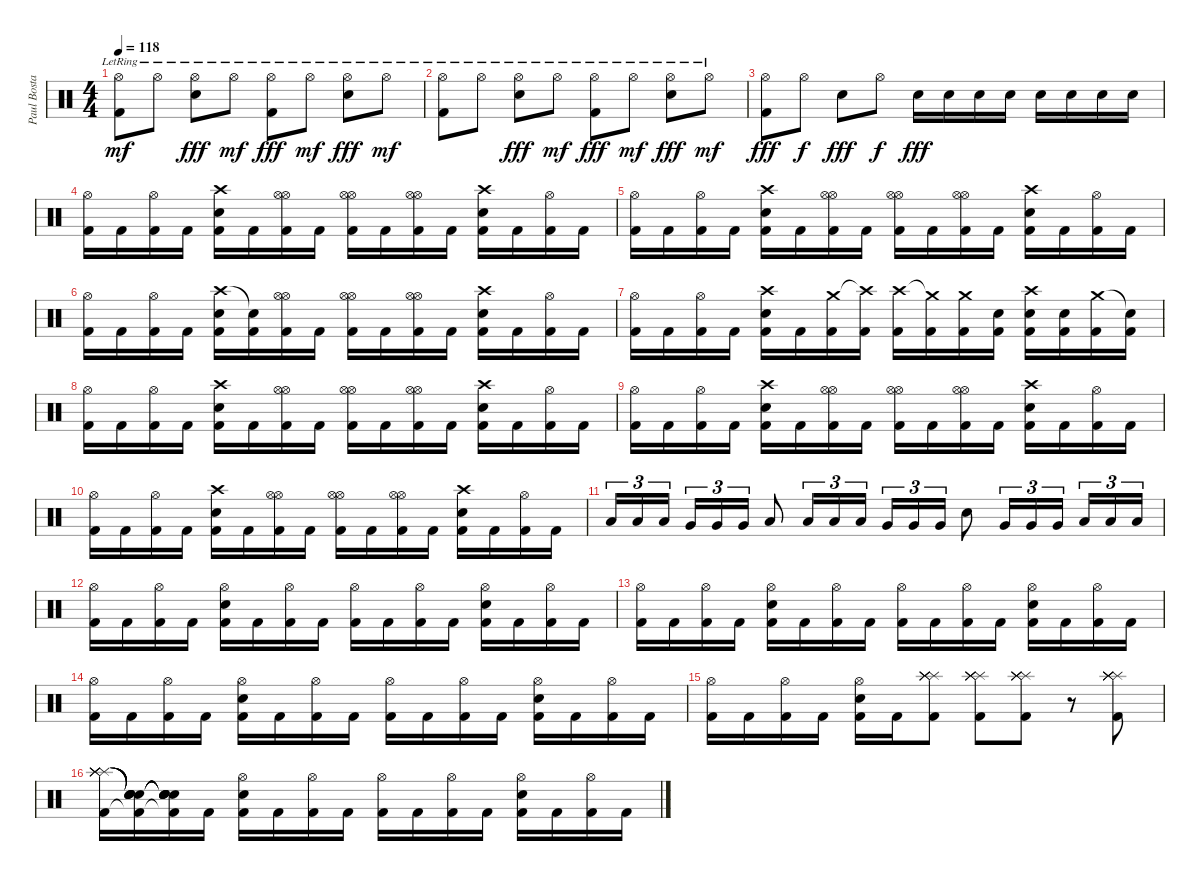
\track ("Paul Bostaph" "Paul Bosta") {instrument percussion}
\staff {score}
\articulation defaults
\ts (4 4)
\tempo 118
\clef neutral
\ks c
("Kick (hit) 2" "Hi-Hat (open)"{lr}).8{dy mf} "Hi-Hat (open)"{lr}.8 ("Hi-Hat (open)"{lr} "Snare (hit) 2").8{dy fff} "Hi-Hat (open)"{lr}.8{dy mf} ("Hi-Hat (open)"{lr} "Kick (hit) 2").8{dy fff} "Hi-Hat (open)"{lr}.8{dy mf} ("Hi-Hat (open)"{lr} "Snare (hit) 2").8{dy fff} "Hi-Hat (open)"{lr}.8{dy mf} |
("Kick (hit) 2" "Hi-Hat (open)"{lr}).8 "Hi-Hat (open)"{lr}.8 ("Hi-Hat (open)"{lr} "Snare (hit) 2").8{dy fff} "Hi-Hat (open)"{lr}.8{dy mf} ("Hi-Hat (open)"{lr} "Kick (hit) 2").8{dy fff} "Hi-Hat (open)"{lr}.8{dy mf} ("Hi-Hat (open)"{lr} "Snare (hit) 2").8{dy fff} "Hi-Hat (open)"{lr}.8{dy mf} |
("Hi-Hat (open)" "Kick (hit) 2").8{dy fff} "Hi-Hat (open)".8{dy f} "Snare (hit) 2".8{dy fff} "Hi-Hat (open)".8{dy f} "Snare (hit) 2".16{dy fff} "Snare (hit) 2".16 "Snare (hit) 2".16 "Snare (hit) 2".16 "Snare (hit) 2".16 "Snare (hit) 2".16 "Snare (hit) 2".16 "Snare (hit) 2".16 |
("Hi-Hat (open)" "Kick (hit) 2").16 "Kick (hit) 2".16 ("Hi-Hat (open)" "Kick (hit) 2").16 "Kick (hit) 2".16 ("Crash high (hit)" "Snare (hit) 2" "Kick (hit) 2").16 "Kick (hit) 2".16 ("Hi-Hat (open)" "Hi-Hat (open)" "Kick (hit) 2").16 "Kick (hit) 2".16 ("Hi-Hat (open)" "Hi-Hat (open)" "Kick (hit) 2").16 "Kick (hit) 2".16 ("Hi-Hat (open)" "Hi-Hat (open)" "Kick (hit) 2").16 "Kick (hit) 2".16 ("Crash high (hit)" "Snare (hit) 2" "Kick (hit) 2").16 "Kick (hit) 2".16 ("Hi-Hat (open)" "Kick (hit) 2").16 "Kick (hit) 2".16 |
("Hi-Hat (open)" "Kick (hit) 2").16 "Kick (hit) 2".16 ("Hi-Hat (open)" "Kick (hit) 2").16 "Kick (hit) 2".16 ("Crash high (hit)" "Snare (hit) 2" "Kick (hit) 2").16 "Kick (hit) 2".16 ("Hi-Hat (open)" "Hi-Hat (open)" "Kick (hit) 2").16 "Kick (hit) 2".16 ("Hi-Hat (open)" "Hi-Hat (open)" "Kick (hit) 2").16 "Kick (hit) 2".16 ("Hi-Hat (open)" "Hi-Hat (open)" "Kick (hit) 2").16 "Kick (hit) 2".16 ("Crash high (hit)" "Snare (hit) 2" "Kick (hit) 2").16 "Kick (hit) 2".16 ("Hi-Hat (open)" "Kick (hit) 2").16 "Kick (hit) 2".16 |
("Hi-Hat (open)" "Kick (hit) 2").16 "Kick (hit) 2".16 ("Hi-Hat (open)" "Kick (hit) 2").16 "Kick (hit) 2".16 ("Crash high (hit)" "Snare (hit) 2" "Kick (hit) 2").16 ("Snare (hit)"{t} "Kick (hit) 2").16 ("Hi-Hat (open)" "Hi-Hat (open)" "Kick (hit) 2").16 "Kick (hit) 2".16 ("Hi-Hat (open)" "Hi-Hat (open)" "Kick (hit) 2").16 "Kick (hit) 2".16 ("Hi-Hat (open)" "Hi-Hat (open)" "Kick (hit) 2").16 "Kick (hit) 2".16 ("Crash high (hit)" "Snare (hit) 2" "Kick (hit) 2").16 "Kick (hit) 2".16 ("Hi-Hat (open)" "Kick (hit) 2").16 "Kick (hit) 2".16 |
("Hi-Hat (open)" "Kick (hit) 2").16 "Kick (hit) 2".16 ("Hi-Hat (open)" "Kick (hit) 2").16 "Kick (hit) 2".16 ("Crash high (hit)" "Snare (hit) 2" "Kick (hit) 2").16 "Kick (hit) 2".16 ("Crash medium (hit)" "Kick (hit) 2").16 ("Crash high (hit)"{t} "Kick (hit) 2").16 ("Crash high (hit)" "Kick (hit) 2").16 ("Crash medium (hit)"{t} "Kick (hit) 2").16 ("Crash medium (hit)" "Kick (hit) 2").16 ("Snare (hit) 2" "Kick (hit) 2").16 ("Crash high (hit)" "Snare (hit) 2" "Kick (hit) 2").16 ("Snare (hit) 2" "Kick (hit) 2").16 ("Crash medium (hit)" "Kick (hit) 2").16 ("Snare (hit)"{t} "Kick (hit) 2").16 |
("Hi-Hat (open)" "Kick (hit) 2").16 "Kick (hit) 2".16 ("Hi-Hat (open)" "Kick (hit) 2").16 "Kick (hit) 2".16 ("Crash high (hit)" "Snare (hit) 2" "Kick (hit) 2").16 "Kick (hit) 2".16 ("Hi-Hat (open)" "Hi-Hat (open)" "Kick (hit) 2").16 "Kick (hit) 2".16 ("Hi-Hat (open)" "Hi-Hat (open)" "Kick (hit) 2").16 "Kick (hit) 2".16 ("Hi-Hat (open)" "Hi-Hat (open)" "Kick (hit) 2").16 "Kick (hit) 2".16 ("Crash high (hit)" "Snare (hit) 2" "Kick (hit) 2").16 "Kick (hit) 2".16 ("Hi-Hat (open)" "Kick (hit) 2").16 "Kick (hit) 2".16 |
("Hi-Hat (open)" "Kick (hit) 2").16 "Kick (hit) 2".16 ("Hi-Hat (open)" "Kick (hit) 2").16 "Kick (hit) 2".16 ("Crash high (hit)" "Snare (hit) 2" "Kick (hit) 2").16 "Kick (hit) 2".16 ("Hi-Hat (open)" "Hi-Hat (open)" "Kick (hit) 2").16 "Kick (hit) 2".16 ("Hi-Hat (open)" "Hi-Hat (open)" "Kick (hit) 2").16 "Kick (hit) 2".16 ("Hi-Hat (open)" "Hi-Hat (open)" "Kick (hit) 2").16 "Kick (hit) 2".16 ("Crash high (hit)" "Snare (hit) 2" "Kick (hit) 2").16 "Kick (hit) 2".16 ("Hi-Hat (open)" "Kick (hit) 2").16 "Kick (hit) 2".16 |
("Hi-Hat (open)" "Kick (hit) 2").16 "Kick (hit) 2".16 ("Hi-Hat (open)" "Kick (hit) 2").16 "Kick (hit) 2".16 ("Crash high (hit)" "Snare (hit) 2" "Kick (hit) 2").16 "Kick (hit) 2".16 ("Hi-Hat (open)" "Hi-Hat (open)" "Kick (hit) 2").16 "Kick (hit) 2".16 ("Hi-Hat (open)" "Hi-Hat (open)" "Kick (hit) 2").16 "Kick (hit) 2".16 ("Hi-Hat (open)" "Hi-Hat (open)" "Kick (hit) 2").16 "Kick (hit) 2".16 ("Crash high (hit)" "Snare (hit) 2" "Kick (hit) 2").16 "Kick (hit) 2".16 ("Hi-Hat (open)" "Kick (hit) 2").16 "Kick (hit) 2".16 |
"Low Floor Tom (hit)".16{tu (3 2)} "Low Floor Tom (hit)".16{tu (3 2)} "Low Floor Tom (hit)".16{tu (3 2)} "Very Low Tom (hit)".16{tu (3 2)} "Very Low Tom (hit)".16{tu (3 2)} "Very Low Tom (hit)".16{tu (3 2)} "Low Tom (hit)".8 "Low Floor Tom (hit)".16{tu (3 2)} "Low Floor Tom (hit)".16{tu (3 2)} "Low Floor Tom (hit)".16{tu (3 2)} "Very Low Tom (hit)".16{tu (3 2)} "Very Low Tom (hit)".16{tu (3 2)} "Very Low Tom (hit)".16{tu (3 2)} "Snare (hit) 2".8 "Very Low Tom (hit)".16{tu (3 2)} "Very Low Tom (hit)".16{tu (3 2)} "Very Low Tom (hit)".16{tu (3 2)} "Low Floor Tom (hit)".16{tu (3 2)} "Low Floor Tom (hit)".16{tu (3 2)} "Low Floor Tom (hit)".16{tu (3 2)} |
("Hi-Hat (open)" "Kick (hit) 2").16 "Kick (hit) 2".16 ("Hi-Hat (open)" "Kick (hit) 2").16 "Kick (hit) 2".16 ("Hi-Hat (open)" "Snare (hit) 2" "Kick (hit) 2").16 "Kick (hit) 2".16 ("Hi-Hat (open)" "Kick (hit) 2").16 "Kick (hit) 2".16 ("Hi-Hat (open)" "Kick (hit) 2").16 "Kick (hit) 2".16 ("Hi-Hat (open)" "Kick (hit) 2").16 "Kick (hit) 2".16 ("Hi-Hat (open)" "Snare (hit) 2" "Kick (hit) 2").16 "Kick (hit) 2".16 ("Hi-Hat (open)" "Kick (hit) 2").16 "Kick (hit) 2".16 |
("Hi-Hat (open)" "Kick (hit) 2").16 "Kick (hit) 2".16 ("Hi-Hat (open)" "Kick (hit) 2").16 "Kick (hit) 2".16 ("Hi-Hat (open)" "Snare (hit) 2" "Kick (hit) 2").16 "Kick (hit) 2".16 ("Hi-Hat (open)" "Kick (hit) 2").16 "Kick (hit) 2".16 ("Hi-Hat (open)" "Kick (hit) 2").16 "Kick (hit) 2".16 ("Hi-Hat (open)" "Kick (hit) 2").16 "Kick (hit) 2".16 ("Hi-Hat (open)" "Snare (hit) 2" "Kick (hit) 2").16 "Kick (hit) 2".16 ("Hi-Hat (open)" "Kick (hit) 2").16 "Kick (hit) 2".16 |
("Hi-Hat (open)" "Kick (hit) 2").16 "Kick (hit) 2".16 ("Hi-Hat (open)" "Kick (hit) 2").16 "Kick (hit) 2".16 ("Hi-Hat (open)" "Snare (hit) 2" "Kick (hit) 2").16 "Kick (hit) 2".16 ("Hi-Hat (open)" "Kick (hit) 2").16 "Kick (hit) 2".16 ("Hi-Hat (open)" "Kick (hit) 2").16 "Kick (hit) 2".16 ("Hi-Hat (open)" "Kick (hit) 2").16 "Kick (hit) 2".16 ("Hi-Hat (open)" "Snare (hit) 2" "Kick (hit) 2").16 "Kick (hit) 2".16 ("Hi-Hat (open)" "Kick (hit) 2").16 "Kick (hit) 2".16 |
("Hi-Hat (open)" "Kick (hit) 2").16 "Kick (hit) 2".16 ("Hi-Hat (open)" "Kick (hit) 2").16 "Kick (hit) 2".16 ("Hi-Hat (open)" "Snare (hit) 2" "Kick (hit) 2").16 "Kick (hit) 2".16 ("Splash (hit)" "Splash (hit)" "Splash (hit)" "Splash (hit)" "Splash (hit)" "Kick (hit) 2").8 ("Splash (hit)" "Splash (hit)" "Splash (hit)" "Splash (hit)" "Splash (hit)" "Kick (hit) 2").8 ("Splash (hit)" "Splash (hit)" "Splash (hit)" "Splash (hit)" "Splash (hit)" "Kick (hit) 2").8 r.8 ("Splash (hit)" "Splash (hit)" "Splash (hit)" "Splash (hit)" "Splash (hit)" "Kick (hit) 2").8 |
("Splash (hit)" "Splash (hit)" "Splash (hit)" "Splash (hit)" "Splash (hit)" "Kick (hit) 2").16 ("Snare (hit)"{t} "Snare (hit)"{t} "Snare (hit)"{t} "Snare (hit)"{t} "Snare (hit)"{t} "Kick (hit) 2"{t}).16 ("Snare (hit)"{t} "Snare (hit)"{t} "Snare (hit)"{t} "Snare (hit)"{t} "Snare (hit)"{t} "Kick (hit) 2"{t}).16 "Kick (hit) 2".16 ("Hi-Hat (open)" "Snare (hit) 2" "Kick (hit) 2").16 "Kick (hit) 2".16 ("Hi-Hat (open)" "Kick (hit) 2").16 "Kick (hit) 2".16 ("Hi-Hat (open)" "Kick (hit) 2").16 "Kick (hit) 2".16 ("Hi-Hat (open)" "Kick (hit) 2").16 "Kick (hit) 2".16 ("Hi-Hat (open)" "Snare (hit) 2" "Kick (hit) 2").16 "Kick (hit) 2".16 ("Hi-Hat (open)" "Kick (hit) 2").16 "Kick (hit) 2".16
